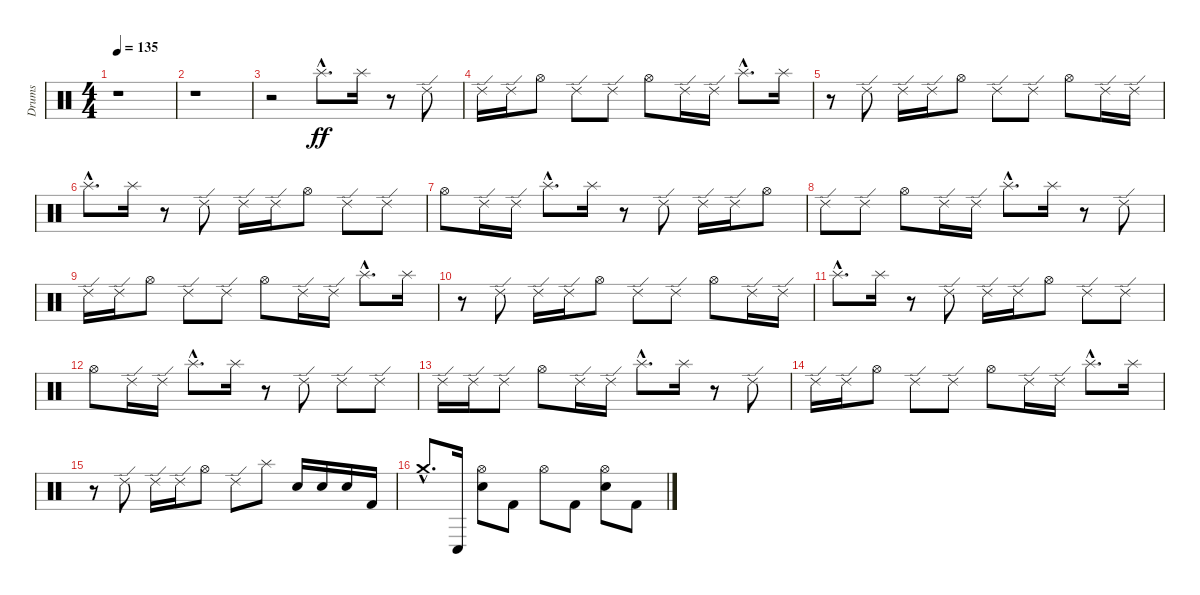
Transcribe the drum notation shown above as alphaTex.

\track ("Drums" "Drums") {instrument percussion}
\staff {score}
\articulation defaults
\ts (4 4)
\tempo 135
\clef neutral
\ks c
r.1{dy ff} |
r.1 |
r.2 "Splash (hit)"{hac}.8{d} "Splash (hit)".16 r.8 "Ride (edge) 2".8 |
"Ride (edge) 2".16 "Ride (edge) 2".16 "Hi-Hat (open)".8 "Ride (edge) 2".8 "Ride (edge) 2".8 "Hi-Hat (open)".8 "Ride (edge) 2".16 "Ride (edge) 2".16 "Splash (hit)"{hac}.8{d} "Splash (hit)".16 |
r.8 "Ride (edge) 2".8 "Ride (edge) 2".16 "Ride (edge) 2".16 "Hi-Hat (open)".8 "Ride (edge) 2".8 "Ride (edge) 2".8 "Hi-Hat (open)".8 "Ride (edge) 2".16 "Ride (edge) 2".16 |
"Splash (hit)"{hac}.8{d} "Splash (hit)".16 r.8 "Ride (edge) 2".8 "Ride (edge) 2".16 "Ride (edge) 2".16 "Hi-Hat (open)".8 "Ride (edge) 2".8 "Ride (edge) 2".8 |
"Hi-Hat (open)".8 "Ride (edge) 2".16 "Ride (edge) 2".16 "Splash (hit)"{hac}.8{d} "Splash (hit)".16 r.8 "Ride (edge) 2".8 "Ride (edge) 2".16 "Ride (edge) 2".16 "Hi-Hat (open)".8 |
"Ride (edge) 2".8 "Ride (edge) 2".8 "Hi-Hat (open)".8 "Ride (edge) 2".16 "Ride (edge) 2".16 "Splash (hit)"{hac}.8{d} "Splash (hit)".16 r.8 "Ride (edge) 2".8 |
"Ride (edge) 2".16 "Ride (edge) 2".16 "Hi-Hat (open)".8 "Ride (edge) 2".8 "Ride (edge) 2".8 "Hi-Hat (open)".8 "Ride (edge) 2".16 "Ride (edge) 2".16 "Splash (hit)"{hac}.8{d} "Splash (hit)".16 |
r.8 "Ride (edge) 2".8 "Ride (edge) 2".16 "Ride (edge) 2".16 "Hi-Hat (open)".8 "Ride (edge) 2".8 "Ride (edge) 2".8 "Hi-Hat (open)".8 "Ride (edge) 2".16 "Ride (edge) 2".16 |
"Splash (hit)"{hac}.8{d} "Splash (hit)".16 r.8 "Ride (edge) 2".8 "Ride (edge) 2".16 "Ride (edge) 2".16 "Hi-Hat (open)".8 "Ride (edge) 2".8 "Ride (edge) 2".8 |
"Hi-Hat (open)".8 "Ride (edge) 2".16 "Ride (edge) 2".16 "Splash (hit)"{hac}.8{d} "Splash (hit)".16 r.8 "Ride (edge) 2".8 "Ride (edge) 2".8 "Ride (edge) 2".8 |
"Ride (edge) 2".16 "Ride (edge) 2".16 "Ride (edge) 2".8 "Hi-Hat (open)".8 "Ride (edge) 2".16 "Ride (edge) 2".16 "Splash (hit)"{hac}.8{d} "Splash (hit)".16 r.8 "Ride (edge) 2".8 |
"Ride (edge) 2".16 "Ride (edge) 2".16 "Hi-Hat (open)".8 "Ride (edge) 2".8 "Ride (edge) 2".8 "Hi-Hat (open)".8 "Ride (edge) 2".16 "Ride (edge) 2".16 "Splash (hit)"{hac}.8{d} "Splash (hit)".16 |
r.8 "Ride (edge) 2".8 "Ride (edge) 2".16 "Ride (edge) 2".16 "Hi-Hat (open)".8 "Ride (edge) 2".8 "Splash (hit)".8 "Electric Snare (hit)".16 "Electric Snare (hit)".16 "Electric Snare (hit)".16 "Kick (hit) 2".16 |
"Crash medium (hit)"{hac}.8{d} "Conga low (hit)".16 ("Electric Snare (hit)" "Hi-Hat (open)").8 "Kick (hit) 2".8 "Hi-Hat (open)".8 "Kick (hit) 2".8 ("Electric Snare (hit)" "Hi-Hat (open)").8 "Kick (hit) 2".8
